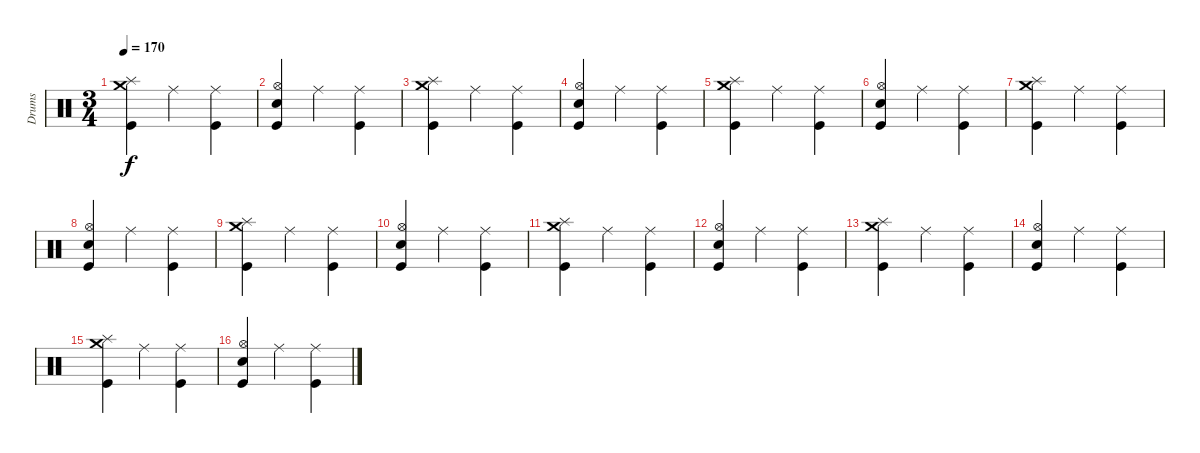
\track ("Drums" "Drums") {instrument percussion}
\staff {score}
\articulation defaults
\ts (3 4)
\tempo 170
\clef neutral
\ks c
("Splash (hit)" "Crash medium (hit)" "Kick (hit)").4{dy f} "Ride (middle)".4 ("Ride (middle)" "Kick (hit)").4 |
("Hi-Hat (open)" "Electric Snare (hit)" "Kick (hit)").4 "Ride (middle)".4 ("Ride (middle)" "Kick (hit)").4 |
("Splash (hit)" "Crash medium (hit)" "Kick (hit)").4 "Ride (middle)".4 ("Ride (middle)" "Kick (hit)").4 |
("Hi-Hat (open)" "Electric Snare (hit)" "Kick (hit)").4 "Ride (middle)".4 ("Ride (middle)" "Kick (hit)").4 |
("Splash (hit)" "Crash medium (hit)" "Kick (hit)").4 "Ride (middle)".4 ("Ride (middle)" "Kick (hit)").4 |
("Hi-Hat (open)" "Electric Snare (hit)" "Kick (hit)").4 "Ride (middle)".4 ("Ride (middle)" "Kick (hit)").4 |
("Splash (hit)" "Crash medium (hit)" "Kick (hit)").4 "Ride (middle)".4 ("Ride (middle)" "Kick (hit)").4 |
("Hi-Hat (open)" "Electric Snare (hit)" "Kick (hit)").4 "Ride (middle)".4 ("Ride (middle)" "Kick (hit)").4 |
("Splash (hit)" "Crash medium (hit)" "Kick (hit)").4 "Ride (middle)".4 ("Ride (middle)" "Kick (hit)").4 |
("Hi-Hat (open)" "Electric Snare (hit)" "Kick (hit)").4 "Ride (middle)".4 ("Ride (middle)" "Kick (hit)").4 |
("Splash (hit)" "Crash medium (hit)" "Kick (hit)").4 "Ride (middle)".4 ("Ride (middle)" "Kick (hit)").4 |
("Hi-Hat (open)" "Electric Snare (hit)" "Kick (hit)").4 "Ride (middle)".4 ("Ride (middle)" "Kick (hit)").4 |
("Splash (hit)" "Crash medium (hit)" "Kick (hit)").4 "Ride (middle)".4 ("Ride (middle)" "Kick (hit)").4 |
("Hi-Hat (open)" "Electric Snare (hit)" "Kick (hit)").4 "Ride (middle)".4 ("Ride (middle)" "Kick (hit)").4 |
("Splash (hit)" "Crash medium (hit)" "Kick (hit)").4 "Ride (middle)".4 ("Ride (middle)" "Kick (hit)").4 |
("Hi-Hat (open)" "Electric Snare (hit)" "Kick (hit)").4 "Ride (middle)".4 ("Ride (middle)" "Kick (hit)").4
